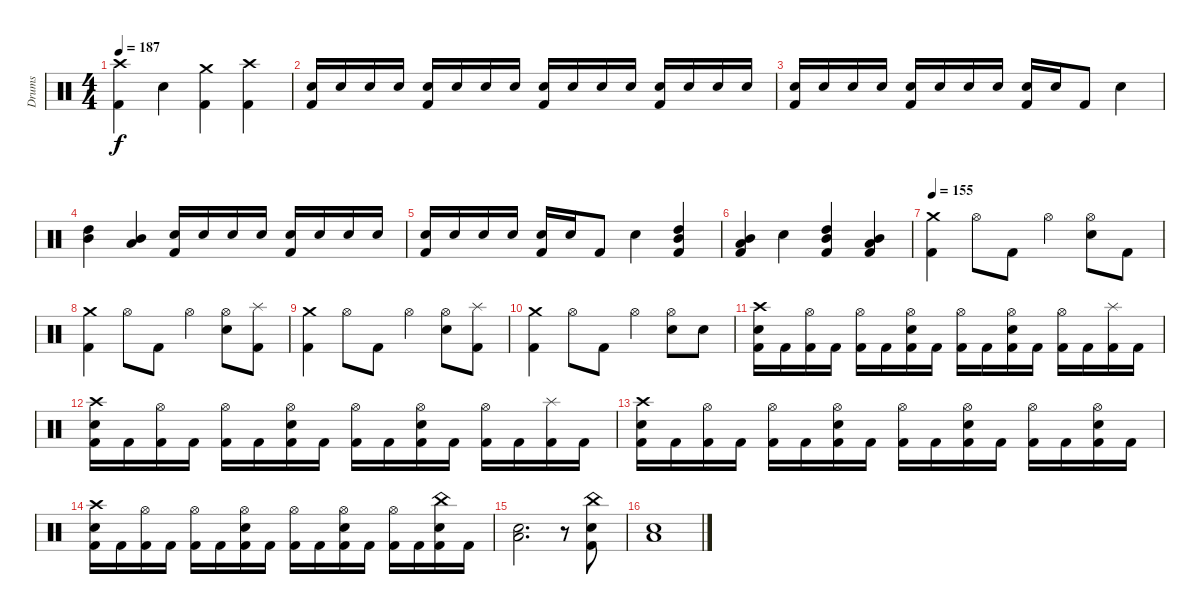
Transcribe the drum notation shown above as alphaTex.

\track ("Drums" "Drums") {instrument percussion}
\staff {score}
\articulation defaults
\ts (4 4)
\tempo 187
\clef neutral
\ks c
("Crash high (hit)" "Kick (hit) 2").4{dy f} "Electric Snare (hit)".4 ("Crash medium (hit)" "Kick (hit) 2").4 ("Crash high (hit)" "Kick (hit) 2").4 |
("Electric Snare (hit)" "Kick (hit) 2").16 "Electric Snare (hit)".16 "Electric Snare (hit)".16 "Electric Snare (hit)".16 ("Electric Snare (hit)" "Kick (hit) 2").16 "Electric Snare (hit)".16 "Electric Snare (hit)".16 "Electric Snare (hit)".16 ("Electric Snare (hit)" "Kick (hit) 2").16 "Electric Snare (hit)".16 "Electric Snare (hit)".16 "Electric Snare (hit)".16 ("Electric Snare (hit)" "Kick (hit) 2").16 "Electric Snare (hit)".16 "Electric Snare (hit)".16 "Electric Snare (hit)".16 |
("Electric Snare (hit)" "Kick (hit) 2").16 "Electric Snare (hit)".16 "Electric Snare (hit)".16 "Electric Snare (hit)".16 ("Electric Snare (hit)" "Kick (hit) 2").16 "Electric Snare (hit)".16 "Electric Snare (hit)".16 "Electric Snare (hit)".16 ("Electric Snare (hit)" "Kick (hit) 2").16 "Electric Snare (hit)".16 "Kick (hit) 2".8 "Electric Snare (hit)".4 |
("High Tom (hit)" "Mid Tom (hit)").4 ("Mid Tom (hit)" "Low Tom (hit)").4 ("Electric Snare (hit)" "Kick (hit) 2").16 "Electric Snare (hit)".16 "Electric Snare (hit)".16 "Electric Snare (hit)".16 ("Electric Snare (hit)" "Kick (hit) 2").16 "Electric Snare (hit)".16 "Electric Snare (hit)".16 "Electric Snare (hit)".16 |
("Electric Snare (hit)" "Kick (hit) 2").16 "Electric Snare (hit)".16 "Electric Snare (hit)".16 "Electric Snare (hit)".16 ("Electric Snare (hit)" "Kick (hit) 2").16 "Electric Snare (hit)".16 "Kick (hit) 2".8 "Electric Snare (hit)".4 ("High Tom (hit)" "Mid Tom (hit)" "Kick (hit) 2").4 |
("Mid Tom (hit)" "Low Tom (hit)" "Kick (hit) 2").4 "Electric Snare (hit)".4 ("High Tom (hit)" "Mid Tom (hit)" "Kick (hit) 2").4 ("Mid Tom (hit)" "Low Tom (hit)" "Kick (hit) 2").4 |
\tempo 155
("Crash medium (hit)" "Kick (hit) 2").4 "Hi-Hat (open)".8 "Kick (hit) 2".8 "Hi-Hat (open)".4 ("Hi-Hat (open)" "Electric Snare (hit)").8 "Kick (hit) 2".8 |
("Crash medium (hit)" "Kick (hit) 2").4 "Hi-Hat (open)".8 "Kick (hit) 2".8 "Hi-Hat (open)".4 ("Hi-Hat (open)" "Electric Snare (hit)").8 ("Splash (hit)" "Kick (hit) 2").8 |
("Crash medium (hit)" "Kick (hit) 2").4 "Hi-Hat (open)".8 "Kick (hit) 2".8 "Hi-Hat (open)".4 ("Hi-Hat (open)" "Electric Snare (hit)").8 ("Splash (hit)" "Kick (hit) 2").8 |
("Crash medium (hit)" "Kick (hit) 2").4 "Hi-Hat (open)".8 "Kick (hit) 2".8 "Hi-Hat (open)".4 ("Hi-Hat (open)" "Electric Snare (hit)").8 "Electric Snare (hit)".8 |
("Crash high (hit)" "Electric Snare (hit)" "Kick (hit) 2").16 "Kick (hit) 2".16 ("Hi-Hat (open)" "Kick (hit) 2").16 "Kick (hit) 2".16 ("Hi-Hat (open)" "Kick (hit) 2").16 "Kick (hit) 2".16 ("Hi-Hat (open)" "Electric Snare (hit)" "Kick (hit) 2").16 "Kick (hit) 2".16 ("Hi-Hat (open)" "Kick (hit) 2").16 "Kick (hit) 2".16 ("Hi-Hat (open)" "Electric Snare (hit)" "Kick (hit) 2").16 "Kick (hit) 2".16 ("Hi-Hat (open)" "Kick (hit) 2").16 "Kick (hit) 2".16 ("Splash (hit)" "Kick (hit) 2").16 "Kick (hit) 2".16 |
("Crash high (hit)" "Electric Snare (hit)" "Kick (hit) 2").16 "Kick (hit) 2".16 ("Hi-Hat (open)" "Kick (hit) 2").16 "Kick (hit) 2".16 ("Hi-Hat (open)" "Kick (hit) 2").16 "Kick (hit) 2".16 ("Hi-Hat (open)" "Electric Snare (hit)" "Kick (hit) 2").16 "Kick (hit) 2".16 ("Hi-Hat (open)" "Kick (hit) 2").16 "Kick (hit) 2".16 ("Hi-Hat (open)" "Electric Snare (hit)" "Kick (hit) 2").16 "Kick (hit) 2".16 ("Hi-Hat (open)" "Kick (hit) 2").16 "Kick (hit) 2".16 ("Splash (hit)" "Kick (hit) 2").16 "Kick (hit) 2".16 |
("Crash high (hit)" "Electric Snare (hit)" "Kick (hit) 2").16 "Kick (hit) 2".16 ("Hi-Hat (open)" "Kick (hit) 2").16 "Kick (hit) 2".16 ("Hi-Hat (open)" "Kick (hit) 2").16 "Kick (hit) 2".16 ("Hi-Hat (open)" "Electric Snare (hit)" "Kick (hit) 2").16 "Kick (hit) 2".16 ("Hi-Hat (open)" "Kick (hit) 2").16 "Kick (hit) 2".16 ("Hi-Hat (open)" "Electric Snare (hit)" "Kick (hit) 2").16 "Kick (hit) 2".16 ("Hi-Hat (open)" "Kick (hit) 2").16 "Kick (hit) 2".16 ("Hi-Hat (open)" "Electric Snare (hit)" "Kick (hit) 2").16 "Kick (hit) 2".16 |
("Crash high (hit)" "Electric Snare (hit)" "Kick (hit) 2").16 "Kick (hit) 2".16 ("Hi-Hat (open)" "Kick (hit) 2").16 "Kick (hit) 2".16 ("Hi-Hat (open)" "Kick (hit) 2").16 "Kick (hit) 2".16 ("Hi-Hat (open)" "Electric Snare (hit)" "Kick (hit) 2").16 "Kick (hit) 2".16 ("Hi-Hat (open)" "Kick (hit) 2").16 "Kick (hit) 2".16 ("Hi-Hat (open)" "Electric Snare (hit)" "Kick (hit) 2").16 "Kick (hit) 2".16 ("Hi-Hat (open)" "Kick (hit) 2").16 "Kick (hit) 2".16 ("China (hit)" "Electric Snare (hit)" "Kick (hit) 2").16 "Kick (hit) 2".16 |
("Electric Snare (hit)" "Low Tom (hit)").2{d} r.8 ("China (hit)" "Electric Snare (hit)" "Kick (hit) 2").8 |
("Electric Snare (hit)" "Low Tom (hit)").1
